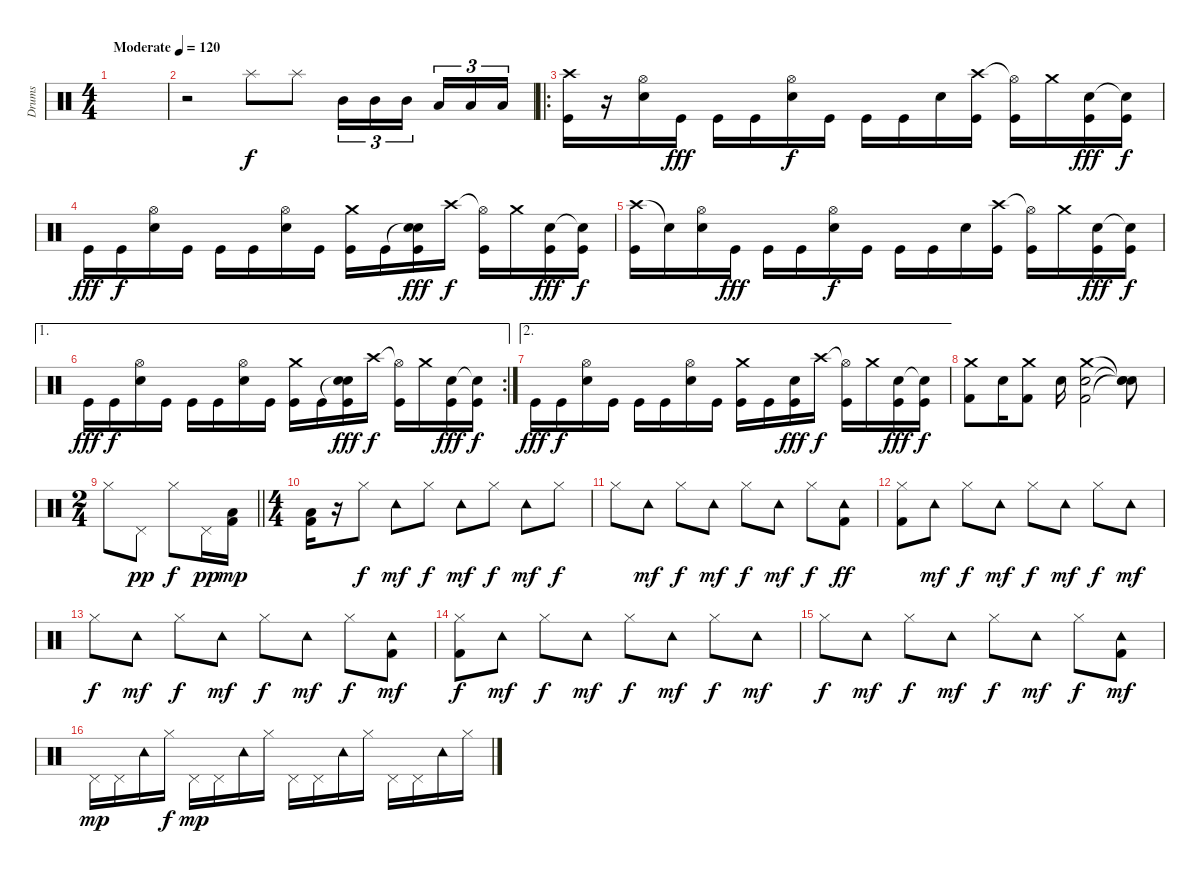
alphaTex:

\track ("Drums" "Drums") {instrument percussion}
\staff {score}
\articulation defaults
\ts (4 4)
\tempo (120 "Moderate")
\clef neutral
\ks c
|
r.2 "Splash (hit)".8 "Splash (hit)".8 "Mid Tom (hit)".16{tu (3 2) dy f} "Mid Tom (hit)".16{tu (3 2)} "Mid Tom (hit)".16{tu (3 2) beam splitsecondary} "Low Tom (hit)".16{tu (3 2)} "Low Tom (hit)".16{tu (3 2)} "Low Tom (hit)".16{tu (3 2)} |
\ro
("Crash high (hit)" "Kick (hit)").16 r.16 ("Hi-Hat (open)" "Electric Snare (hit)").16 "Kick (hit)".16{dy fff} "Kick (hit)".16 "Kick (hit)".16 ("Hi-Hat (open)" "Electric Snare (hit)").16{dy f} "Kick (hit)".16 "Kick (hit)".16 "Kick (hit)".16 "Electric Snare (hit)".16 ("Crash high (hit)" "Kick (hit)").16 ("Hi-Hat (open)"{t} "Kick (hit)").16 "Crash medium (hit)".16 ("Electric Snare (hit)" "Kick (hit)").16{dy fff} ("Snare (hit)"{t} "Kick (hit)").16{dy f} |
"Kick (hit)".16{dy fff} "Kick (hit)".16{dy f} ("Hi-Hat (open)" "Snare (hit) 2").16 "Kick (hit)".16 "Kick (hit)".16 "Kick (hit)".16 ("Hi-Hat (open)" "Snare (hit) 2").16 "Kick (hit)".16 ("Crash medium (hit)" "Kick (hit)").16 "Kick (hit)".16 ("Snare (hit)"{t} "Snare (hit) 2" "Kick (hit)").16{dy fff} "Crash high (hit)".16{dy f} ("Hi-Hat (open)"{t} "Kick (hit)").16 "Crash medium (hit)".16 ("Snare (hit) 2" "Kick (hit)").16{dy fff} ("Snare (hit)"{t} "Kick (hit)").16{dy f} |
("Crash high (hit)" "Kick (hit)").16 "Snare (hit)"{t}.16 ("Hi-Hat (open)" "Electric Snare (hit)").16 "Kick (hit)".16{dy fff} "Kick (hit)".16 "Kick (hit)".16 ("Hi-Hat (open)" "Electric Snare (hit)").16{dy f} "Kick (hit)".16 "Kick (hit)".16 "Kick (hit)".16 "Electric Snare (hit)".16 ("Crash high (hit)" "Kick (hit)").16 ("Hi-Hat (open)"{t} "Kick (hit)").16 "Crash medium (hit)".16 ("Electric Snare (hit)" "Kick (hit)").16{dy fff} ("Snare (hit)"{t} "Kick (hit)").16{dy f} |
\ae 1
\rc 2 "Kick (hit)".16{dy fff} "Kick (hit)".16{dy f}
("Hi-Hat (open)" "Electric Snare (hit)").16 "Kick (hit)".16 "Kick (hit)".16 "Kick (hit)".16 ("Hi-Hat (open)" "Electric Snare (hit)").16 "Kick (hit)".16 ("Crash medium (hit)" "Kick (hit)").16 "Kick (hit)".16 ("Snare (hit)"{t} "Electric Snare (hit)" "Kick (hit)").16{dy fff} "Crash high (hit)".16{dy f} ("Hi-Hat (open)"{t} "Kick (hit)").16 "Crash medium (hit)".16 ("Electric Snare (hit)" "Kick (hit)").16{dy fff} ("Snare (hit)"{t} "Kick (hit)").16{dy f} |
\ae 2 "Kick (hit)".16{dy fff} "Kick (hit)".16{dy f}
("Hi-Hat (open)" "Electric Snare (hit)").16 "Kick (hit)".16 "Kick (hit)".16 "Kick (hit)".16 ("Hi-Hat (open)" "Electric Snare (hit)").16 "Kick (hit)".16 ("Crash medium (hit)" "Kick (hit)").16 "Kick (hit)".16 ("Electric Snare (hit)" "Kick (hit)").16{dy fff} "Crash high (hit)".16{dy f} ("Hi-Hat (open)"{t} "Kick (hit)").16 "Crash medium (hit)".16 ("Electric Snare (hit)" "Kick (hit)").16{dy fff} ("Snare (hit)"{t} "Kick (hit)").16{dy f} |
("Crash medium (hit)" "Kick (hit) 2").8 "Snare (hit) 2".16 ("Crash medium (hit)" "Kick (hit) 2").8 "Snare (hit) 2".16 ("Crash medium (hit)" "Snare (hit) 2" "Kick (hit) 2").2 ("Snare (hit)"{t} "Snare (hit)"{t} "Snare (hit)"{t}).8 |
\ts (2 4)
\barLineRight lightlight "Hi-Hat (closed)".8 "Pedal Hi-Hat (hit)".8{dy pp} "Hi-Hat (closed)".8{dy f} "Pedal Hi-Hat (hit)".16{dy pp}
("Low Floor Tom (hit)" "Kick (hit) 2").16{dy mp} |
\ts (4 4)
\section ("" "")
("Low Floor Tom (hit)" "Kick (hit) 2").16 r.16 "Hi-Hat (closed)".8{dy f} "Tambourine (hit)".8{dy mf} "Hi-Hat (closed)".8{dy f} "Tambourine (hit)".8{dy mf} "Hi-Hat (closed)".8{dy f} "Tambourine (hit)".8{dy mf} "Hi-Hat (closed)".8{dy f} |
"Hi-Hat (closed)".8 "Tambourine (hit)".8{dy mf} "Hi-Hat (closed)".8{dy f} "Tambourine (hit)".8{dy mf} "Hi-Hat (closed)".8{dy f} "Tambourine (hit)".8{dy mf} "Hi-Hat (closed)".8{dy f} ("Tambourine (hit)" "Kick (hit) 2").8{dy ff} |
("Hi-Hat (closed)" "Kick (hit) 2").8 "Tambourine (hit)".8{dy mf} "Hi-Hat (closed)".8{dy f} "Tambourine (hit)".8{dy mf} "Hi-Hat (closed)".8{dy f} "Tambourine (hit)".8{dy mf} "Hi-Hat (closed)".8{dy f} "Tambourine (hit)".8{dy mf} |
"Hi-Hat (closed)".8{dy f} "Tambourine (hit)".8{dy mf} "Hi-Hat (closed)".8{dy f} "Tambourine (hit)".8{dy mf} "Hi-Hat (closed)".8{dy f} "Tambourine (hit)".8{dy mf} "Hi-Hat (closed)".8{dy f} ("Tambourine (hit)" "Kick (hit) 2").8{dy mf} |
("Hi-Hat (closed)" "Kick (hit) 2").8{dy f} "Tambourine (hit)".8{dy mf} "Hi-Hat (closed)".8{dy f} "Tambourine (hit)".8{dy mf} "Hi-Hat (closed)".8{dy f} "Tambourine (hit)".8{dy mf} "Hi-Hat (closed)".8{dy f} "Tambourine (hit)".8{dy mf} |
"Hi-Hat (closed)".8{dy f} "Tambourine (hit)".8{dy mf} "Hi-Hat (closed)".8{dy f} "Tambourine (hit)".8{dy mf} "Hi-Hat (closed)".8{dy f} "Tambourine (hit)".8{dy mf} "Hi-Hat (closed)".8{dy f} ("Tambourine (hit)" "Kick (hit) 2").8{dy mf} |
"Pedal Hi-Hat (hit)".16{dy mp} "Pedal Hi-Hat (hit)".16 "Tambourine (hit)".16 "Hi-Hat (closed)".16{dy f} "Pedal Hi-Hat (hit)".16{dy mp} "Pedal Hi-Hat (hit)".16 "Tambourine (hit)".16 "Hi-Hat (closed)".16 "Pedal Hi-Hat (hit)".16 "Pedal Hi-Hat (hit)".16 "Tambourine (hit)".16 "Hi-Hat (closed)".16 "Pedal Hi-Hat (hit)".16 "Pedal Hi-Hat (hit)".16 "Tambourine (hit)".16 "Hi-Hat (closed)".16
